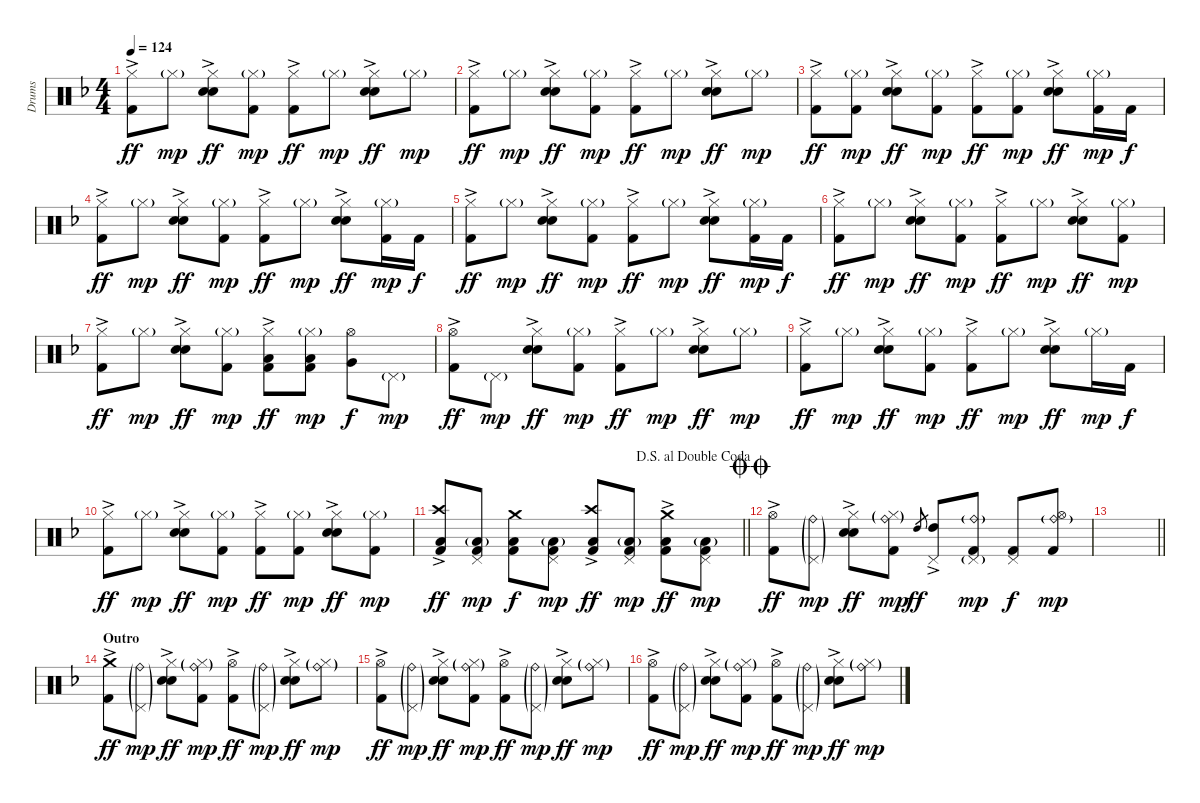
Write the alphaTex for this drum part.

\track ("Drums" "Drums") {instrument percussion}
\staff {score}
\articulation defaults
\ts (4 4)
\tempo 124
\clef neutral
\ks f
("Hi-Hat (closed)" "Kick (hit) 2"{ac}).8{dy ff} "Hi-Hat (closed)"{g}.8{dy mp} ("Hi-Hat (closed)" "Electric Snare (hit)"{ac} "Snare (hit) 2").8{dy ff} ("Hi-Hat (closed)"{g} "Kick (hit) 2").8{dy mp} ("Hi-Hat (closed)" "Kick (hit) 2"{ac}).8{dy ff} "Hi-Hat (closed)"{g}.8{dy mp} ("Hi-Hat (closed)" "Electric Snare (hit)"{ac} "Snare (hit) 2").8{dy ff} "Hi-Hat (closed)"{g}.8{dy mp} |
("Hi-Hat (closed)" "Kick (hit) 2"{ac}).8{dy ff} "Hi-Hat (closed)"{g}.8{dy mp} ("Hi-Hat (closed)" "Electric Snare (hit)"{ac} "Snare (hit) 2").8{dy ff} ("Hi-Hat (closed)"{g} "Kick (hit) 2").8{dy mp} ("Hi-Hat (closed)" "Kick (hit) 2"{ac}).8{dy ff} "Hi-Hat (closed)"{g}.8{dy mp} ("Hi-Hat (closed)" "Electric Snare (hit)"{ac} "Snare (hit) 2").8{dy ff} "Hi-Hat (closed)"{g}.8{dy mp} |
("Hi-Hat (closed)" "Kick (hit) 2"{ac}).8{dy ff} ("Hi-Hat (closed)"{g} "Kick (hit) 2").8{dy mp} ("Hi-Hat (closed)" "Electric Snare (hit)"{ac} "Snare (hit) 2").8{dy ff} ("Hi-Hat (closed)"{g} "Kick (hit) 2").8{dy mp} ("Hi-Hat (closed)" "Kick (hit) 2"{ac}).8{dy ff} ("Hi-Hat (closed)"{g} "Kick (hit) 2").8{dy mp} ("Hi-Hat (closed)" "Electric Snare (hit)"{ac} "Snare (hit) 2").8{dy ff} ("Hi-Hat (closed)"{g} "Kick (hit) 2").16{dy mp} "Kick (hit) 2".16{dy f} |
("Hi-Hat (closed)" "Kick (hit) 2"{ac}).8{dy ff} "Hi-Hat (closed)"{g}.8{dy mp} ("Hi-Hat (closed)" "Electric Snare (hit)"{ac} "Snare (hit) 2").8{dy ff} ("Hi-Hat (closed)"{g} "Kick (hit) 2").8{dy mp} ("Hi-Hat (closed)" "Kick (hit) 2"{ac}).8{dy ff} "Hi-Hat (closed)"{g}.8{dy mp} ("Hi-Hat (closed)" "Electric Snare (hit)"{ac} "Snare (hit) 2").8{dy ff} ("Hi-Hat (closed)"{g} "Kick (hit) 2").16{dy mp} "Kick (hit) 2".16{dy f} |
("Hi-Hat (closed)" "Kick (hit) 2"{ac}).8{dy ff} "Hi-Hat (closed)"{g}.8{dy mp} ("Hi-Hat (closed)" "Electric Snare (hit)"{ac} "Snare (hit) 2").8{dy ff} ("Hi-Hat (closed)"{g} "Kick (hit) 2").8{dy mp} ("Hi-Hat (closed)" "Kick (hit) 2"{ac}).8{dy ff} "Hi-Hat (closed)"{g}.8{dy mp} ("Hi-Hat (closed)" "Electric Snare (hit)"{ac} "Snare (hit) 2").8{dy ff} ("Hi-Hat (closed)"{g} "Kick (hit) 2").16{dy mp} "Kick (hit) 2".16{dy f} |
("Hi-Hat (closed)" "Kick (hit) 2"{ac}).8{dy ff} "Hi-Hat (closed)"{g}.8{dy mp} ("Hi-Hat (closed)" "Electric Snare (hit)"{ac} "Snare (hit) 2").8{dy ff} ("Hi-Hat (closed)"{g} "Kick (hit) 2").8{dy mp} ("Hi-Hat (closed)" "Kick (hit) 2"{ac}).8{dy ff} "Hi-Hat (closed)"{g}.8{dy mp} ("Hi-Hat (closed)" "Electric Snare (hit)"{ac} "Snare (hit) 2").8{dy ff} ("Hi-Hat (closed)"{g} "Kick (hit) 2").8{dy mp} |
("Hi-Hat (closed)" "Kick (hit) 2"{ac}).8{dy ff} "Hi-Hat (closed)"{g}.8{dy mp} ("Hi-Hat (closed)" "Electric Snare (hit)"{ac} "Snare (hit) 2").8{dy ff} ("Hi-Hat (closed)"{g} "Kick (hit) 2").8{dy mp} ("Hi-Hat (closed)" "Low Tom (hit)" "Kick (hit) 2"{ac}).8{dy ff} ("Hi-Hat (closed)"{g} "Low Tom (hit)" "Kick (hit) 2").8{dy mp} ("Hi-Hat (open)" "Very Low Tom (hit)").8{dy f} "Pedal Hi-Hat (hit)"{g}.8{dy mp} |
("Hi-Hat (open)" "Kick (hit) 2"{ac}).8{dy ff} "Pedal Hi-Hat (hit)"{g}.8{dy mp} ("Hi-Hat (closed)" "Electric Snare (hit)"{ac} "Snare (hit) 2").8{dy ff} ("Hi-Hat (closed)"{g} "Kick (hit) 2").8{dy mp} ("Hi-Hat (closed)" "Kick (hit) 2"{ac}).8{dy ff} "Hi-Hat (closed)"{g}.8{dy mp} ("Hi-Hat (closed)" "Electric Snare (hit)"{ac} "Snare (hit) 2").8{dy ff} "Hi-Hat (closed)"{g}.8{dy mp} |
("Hi-Hat (closed)" "Kick (hit) 2"{ac}).8{dy ff} "Hi-Hat (closed)"{g}.8{dy mp} ("Hi-Hat (closed)" "Electric Snare (hit)"{ac} "Snare (hit) 2").8{dy ff} ("Hi-Hat (closed)"{g} "Kick (hit) 2").8{dy mp} ("Hi-Hat (closed)" "Kick (hit) 2"{ac}).8{dy ff} "Hi-Hat (closed)"{g}.8{dy mp} ("Hi-Hat (closed)" "Electric Snare (hit)"{ac} "Snare (hit) 2").8{dy ff} "Hi-Hat (closed)"{g}.16{dy mp} "Kick (hit) 2".16{dy f} |
("Hi-Hat (closed)" "Kick (hit) 2"{ac}).8{dy ff} "Hi-Hat (closed)"{g}.8{dy mp} ("Hi-Hat (closed)" "Electric Snare (hit)"{ac} "Snare (hit) 2").8{dy ff} ("Hi-Hat (closed)"{g} "Kick (hit) 2").8{dy mp} ("Hi-Hat (closed)" "Kick (hit) 2"{ac}).8{dy ff} ("Hi-Hat (closed)"{g} "Kick (hit) 2").8{dy mp} ("Hi-Hat (closed)" "Electric Snare (hit)"{ac} "Snare (hit) 2").8{dy ff} ("Hi-Hat (closed)"{g} "Kick (hit) 2").8{dy mp} |
\jump dalsegnoaldoublecoda
\barLineRight lightlight
("Crash high (hit)" "Low Floor Tom (hit)" "Kick (hit) 2"{ac}).8{dy ff} ("Pedal Hi-Hat (hit)" "Low Floor Tom (hit)"{g} "Kick (hit) 2").8{dy mp} ("Crash medium (hit)" "Low Floor Tom (hit)" "Kick (hit) 2").8{dy f} ("Pedal Hi-Hat (hit)" "Low Floor Tom (hit)"{g} "Kick (hit) 2").8{dy mp} ("Crash high (hit)" "Low Floor Tom (hit)" "Kick (hit) 2"{ac}).8{dy ff} ("Pedal Hi-Hat (hit)" "Low Floor Tom (hit)"{g} "Kick (hit) 2").8{dy mp} ("Crash medium (hit)" "Low Floor Tom (hit)" "Kick (hit) 2"{ac}).8{dy ff} ("Pedal Hi-Hat (hit)" "Low Floor Tom (hit)"{g} "Kick (hit) 2").8{dy mp} |
\jump doublecoda
("Hi-Hat (open)" "Kick (hit) 2"{ac}).8{dy ff} ("Ride (bell)"{g} "Pedal Hi-Hat (hit)"{g}).8{dy mp} ("Hi-Hat (closed)" "Electric Snare (hit)"{ac} "Snare (hit) 2").8{dy ff} ("Hi-Hat (closed)"{g} "Ride (bell)"{g} "Kick (hit) 2").8{dy mp} "High Tom (hit)".8{gr dy ff} ("Pedal Hi-Hat (hit)" "High Tom (hit)"{ac}).8 ("Pedal Hi-Hat (hit)"{g} "Ride (bell)"{g} "Kick (hit) 2").8{dy mp} ("Pedal Hi-Hat (hit)" "Kick (hit) 2").8{dy f} ("Hi-Hat (open)" "Ride (bell)"{g} "Kick (hit) 2").8{dy mp} |
\barLineRight lightlight
|
\section ("" "Outro")
("Crash medium (hit)" "Kick (hit) 2"{ac}).8{dy ff} ("Ride (bell)"{g} "Pedal Hi-Hat (hit)"{g}).8{dy mp} ("Hi-Hat (closed)" "Electric Snare (hit)"{ac} "Snare (hit) 2").8{dy ff} ("Hi-Hat (closed)"{g} "Ride (bell)"{g} "Kick (hit) 2").8{dy mp} ("Hi-Hat (open)" "Kick (hit) 2"{ac}).8{dy ff} ("Ride (bell)"{g} "Pedal Hi-Hat (hit)"{g}).8{dy mp} ("Hi-Hat (closed)" "Electric Snare (hit)"{ac} "Snare (hit) 2").8{dy ff} ("Hi-Hat (closed)"{g} "Ride (bell)"{g}).8{dy mp} |
("Hi-Hat (open)" "Kick (hit) 2"{ac}).8{dy ff} ("Ride (bell)"{g} "Pedal Hi-Hat (hit)"{g}).8{dy mp} ("Hi-Hat (closed)" "Electric Snare (hit)"{ac} "Snare (hit) 2").8{dy ff} ("Hi-Hat (closed)"{g} "Ride (bell)"{g} "Kick (hit) 2").8{dy mp} ("Hi-Hat (open)" "Kick (hit) 2"{ac}).8{dy ff} ("Ride (bell)"{g} "Pedal Hi-Hat (hit)"{g}).8{dy mp} ("Hi-Hat (closed)" "Electric Snare (hit)"{ac} "Snare (hit) 2").8{dy ff} ("Hi-Hat (closed)"{g} "Ride (bell)"{g}).8{dy mp} |
("Hi-Hat (open)" "Kick (hit) 2"{ac}).8{dy ff} ("Ride (bell)"{g} "Pedal Hi-Hat (hit)"{g}).8{dy mp} ("Hi-Hat (closed)" "Electric Snare (hit)"{ac} "Snare (hit) 2").8{dy ff} ("Hi-Hat (closed)"{g} "Ride (bell)"{g} "Kick (hit) 2").8{dy mp} ("Hi-Hat (open)" "Kick (hit) 2"{ac}).8{dy ff} ("Ride (bell)"{g} "Pedal Hi-Hat (hit)"{g}).8{dy mp} ("Hi-Hat (closed)" "Electric Snare (hit)"{ac} "Snare (hit) 2").8{dy ff} ("Hi-Hat (closed)"{g} "Ride (bell)"{g}).8{dy mp}
